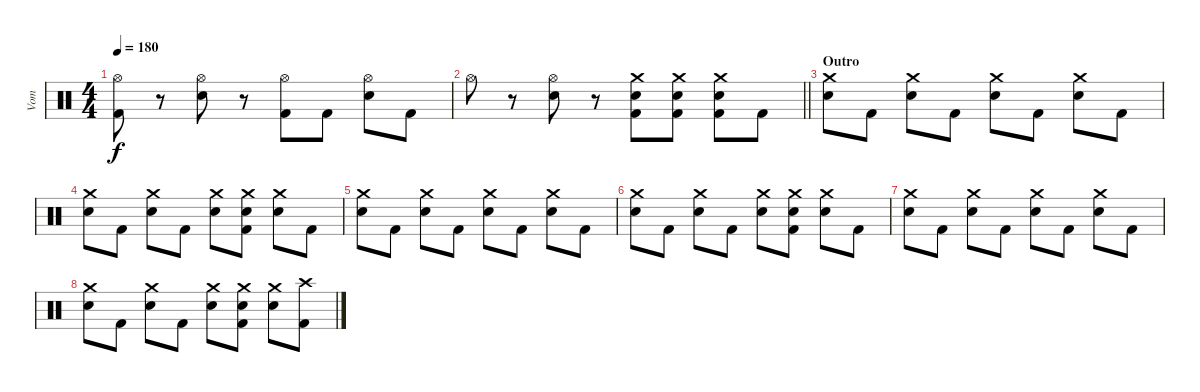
\track ("Vom" "Vom") {instrument percussion}
\staff {score}
\articulation defaults
\ts (4 4)
\tempo 180
\clef neutral
\ks c
("Hi-Hat (open)" "Kick (hit) 2").8{dy f} r.8 ("Hi-Hat (open)" "Snare (hit) 2").8 r.8 ("Hi-Hat (open)" "Kick (hit) 2").8 "Kick (hit) 2".8 ("Hi-Hat (open)" "Snare (hit) 2").8 "Kick (hit) 2".8 |
\barLineRight lightlight "Hi-Hat (open)".8
r.8 ("Hi-Hat (open)" "Snare (hit) 2").8 r.8 ("Crash medium (hit)" "Snare (hit) 2" "Kick (hit) 2").8 ("Crash medium (hit)" "Snare (hit) 2" "Kick (hit) 2").8 ("Crash medium (hit)" "Snare (hit) 2" "Kick (hit) 2").8 "Kick (hit) 2".8 |
\section ("" "Outro")
("Crash medium (hit)" "Snare (hit) 2").8 "Kick (hit) 2".8 ("Crash medium (hit)" "Snare (hit) 2").8 "Kick (hit) 2".8 ("Crash medium (hit)" "Snare (hit) 2").8 "Kick (hit) 2".8 ("Crash medium (hit)" "Snare (hit) 2").8 "Kick (hit) 2".8 |
("Crash medium (hit)" "Snare (hit) 2").8 "Kick (hit) 2".8 ("Crash medium (hit)" "Snare (hit) 2").8 "Kick (hit) 2".8 ("Crash medium (hit)" "Snare (hit) 2").8 ("Crash medium (hit)" "Snare (hit) 2" "Kick (hit) 2").8 ("Crash medium (hit)" "Snare (hit) 2").8 "Kick (hit) 2".8 |
("Crash medium (hit)" "Snare (hit) 2").8 "Kick (hit) 2".8 ("Crash medium (hit)" "Snare (hit) 2").8 "Kick (hit) 2".8 ("Crash medium (hit)" "Snare (hit) 2").8 "Kick (hit) 2".8 ("Crash medium (hit)" "Snare (hit) 2").8 "Kick (hit) 2".8 |
("Crash medium (hit)" "Snare (hit) 2").8 "Kick (hit) 2".8 ("Crash medium (hit)" "Snare (hit) 2").8 "Kick (hit) 2".8 ("Crash medium (hit)" "Snare (hit) 2").8 ("Crash medium (hit)" "Snare (hit) 2" "Kick (hit) 2").8 ("Crash medium (hit)" "Snare (hit) 2").8 "Kick (hit) 2".8 |
("Crash medium (hit)" "Snare (hit) 2").8 "Kick (hit) 2".8 ("Crash medium (hit)" "Snare (hit) 2").8 "Kick (hit) 2".8 ("Crash medium (hit)" "Snare (hit) 2").8 "Kick (hit) 2".8 ("Crash medium (hit)" "Snare (hit) 2").8 "Kick (hit) 2".8 |
("Crash medium (hit)" "Snare (hit) 2").8 "Kick (hit) 2".8 ("Crash medium (hit)" "Snare (hit) 2").8 "Kick (hit) 2".8 ("Crash medium (hit)" "Snare (hit) 2").8 ("Crash medium (hit)" "Snare (hit) 2" "Kick (hit) 2").8 ("Crash medium (hit)" "Snare (hit) 2").8 ("Crash high (hit)" "Kick (hit) 2").8
